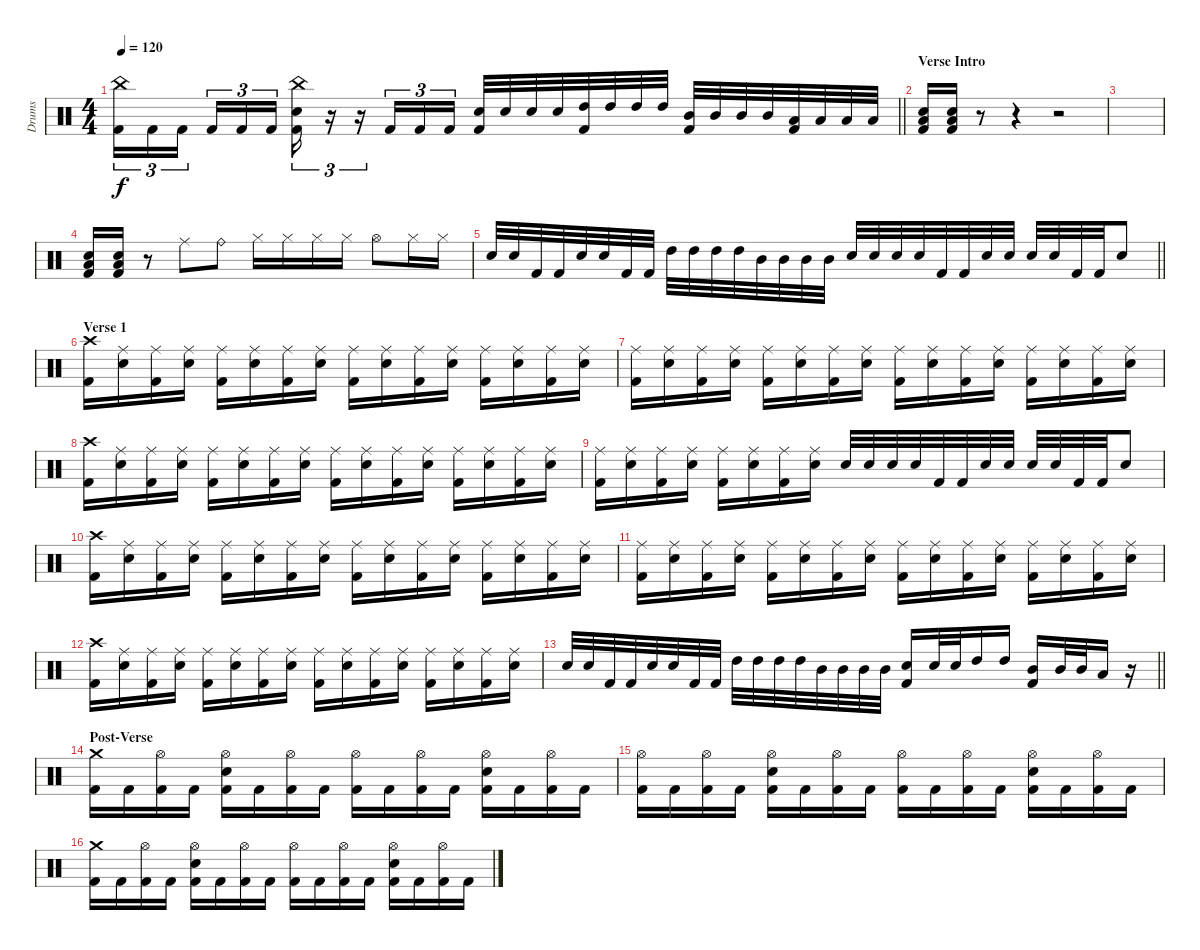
\track ("Drums" "Drums") {instrument percussion}
\staff {score}
\articulation defaults
\ts (4 4)
\tempo 120
\clef neutral
\barLineRight lightlight
\ks c
("China (hit)" "Kick (hit) 2").16{tu (3 2) dy f} "Kick (hit) 2".16{tu (3 2)} "Kick (hit) 2".16{tu (3 2) beam splitsecondary} "Kick (hit) 2".16{tu (3 2)} "Kick (hit) 2".16{tu (3 2)} "Kick (hit) 2".16{tu (3 2)} ("China (hit)" "Snare (hit) 2" "Kick (hit) 2").16{tu (3 2)} r.16{tu (3 2)} r.16{tu (3 2)} "Kick (hit) 2".16{tu (3 2)} "Kick (hit) 2".16{tu (3 2)} "Kick (hit) 2".16{tu (3 2)} ("Snare (hit) 2" "Kick (hit) 2").32 "Snare (hit) 2".32 "Snare (hit) 2".32 "Snare (hit) 2".32 ("High Tom (hit)" "Kick (hit) 2").32 "High Tom (hit)".32 "High Tom (hit)".32 "High Tom (hit)".32 ("Mid Tom (hit)" "Kick (hit) 2").32 "Mid Tom (hit)".32 "Mid Tom (hit)".32 "Mid Tom (hit)".32 ("Low Tom (hit)" "Kick (hit) 2").32 "Low Tom (hit)".32 "Low Tom (hit)".32 "Low Tom (hit)".32 |
\section ("" "Verse Intro")
("Low Tom (hit)" "Snare (hit) 2" "Kick (hit) 2").16 ("Low Tom (hit)" "Snare (hit) 2" "Kick (hit) 2").16 r.8 r.4 r.2 |
|
("Low Tom (hit)" "Snare (hit) 2" "Kick (hit) 2").16 ("Low Tom (hit)" "Snare (hit) 2" "Kick (hit) 2").16 r.8 "Ride (middle)".8 "Ride (bell)".8 "Hi-Hat (closed)".16 "Hi-Hat (closed)".16 "Hi-Hat (closed)".16 "Hi-Hat (closed)".16 "Hi-Hat (open)".8 "Hi-Hat (closed)".16 "Hi-Hat (closed)".16 |
\barLineRight lightlight "Snare (hit) 2".32 "Snare (hit) 2".32 "Kick (hit) 2".32 "Kick (hit) 2".32 "Snare (hit) 2".32 "Snare (hit) 2".32 "Kick (hit) 2".32 "Kick (hit) 2".32 "High Tom (hit)".32 "High Tom (hit)".32 "High Tom (hit)".32 "High Tom (hit)".32 "Mid Tom (hit)".32 "Mid Tom (hit)".32 "Mid Tom (hit)".32 "Mid Tom (hit)".32 "Snare (hit) 2".32 "Snare (hit) 2".32 "Snare (hit) 2".32 "Snare (hit) 2".32 "Kick (hit) 2".32 "Kick (hit) 2".32 "Snare (hit) 2".32 "Snare (hit) 2".32 "Snare (hit) 2".32 "Snare (hit) 2".32 "Kick (hit) 2".32 "Kick (hit) 2".32 "Snare (hit) 2".8
|
\section ("" "Verse 1")
("Crash high (hit)" "Kick (hit) 2").16 ("Ride (middle)" "Snare (hit) 2").16 ("Ride (middle)" "Kick (hit) 2").16 ("Ride (middle)" "Snare (hit) 2").16 ("Ride (middle)" "Kick (hit) 2").16 ("Ride (middle)" "Snare (hit) 2").16 ("Ride (middle)" "Kick (hit) 2").16 ("Ride (middle)" "Snare (hit) 2").16 ("Ride (middle)" "Kick (hit) 2").16 ("Ride (middle)" "Snare (hit) 2").16 ("Ride (middle)" "Kick (hit) 2").16 ("Ride (middle)" "Snare (hit) 2").16 ("Ride (middle)" "Kick (hit) 2").16 ("Ride (middle)" "Snare (hit) 2").16 ("Ride (middle)" "Kick (hit) 2").16 ("Ride (middle)" "Snare (hit) 2").16 |
("Ride (middle)" "Kick (hit) 2").16 ("Ride (middle)" "Snare (hit) 2").16 ("Ride (middle)" "Kick (hit) 2").16 ("Ride (middle)" "Snare (hit) 2").16 ("Ride (middle)" "Kick (hit) 2").16 ("Ride (middle)" "Snare (hit) 2").16 ("Ride (middle)" "Kick (hit) 2").16 ("Ride (middle)" "Snare (hit) 2").16 ("Ride (middle)" "Kick (hit) 2").16 ("Ride (middle)" "Snare (hit) 2").16 ("Ride (middle)" "Kick (hit) 2").16 ("Ride (middle)" "Snare (hit) 2").16 ("Ride (middle)" "Kick (hit) 2").16 ("Ride (middle)" "Snare (hit) 2").16 ("Ride (middle)" "Kick (hit) 2").16 ("Ride (middle)" "Snare (hit) 2").16 |
("Crash high (hit)" "Kick (hit) 2").16 ("Ride (middle)" "Snare (hit) 2").16 ("Ride (middle)" "Kick (hit) 2").16 ("Ride (middle)" "Snare (hit) 2").16 ("Ride (middle)" "Kick (hit) 2").16 ("Ride (middle)" "Snare (hit) 2").16 ("Ride (middle)" "Kick (hit) 2").16 ("Ride (middle)" "Snare (hit) 2").16 ("Ride (middle)" "Kick (hit) 2").16 ("Ride (middle)" "Snare (hit) 2").16 ("Ride (middle)" "Kick (hit) 2").16 ("Ride (middle)" "Snare (hit) 2").16 ("Ride (middle)" "Kick (hit) 2").16 ("Ride (middle)" "Snare (hit) 2").16 ("Ride (middle)" "Kick (hit) 2").16 ("Ride (middle)" "Snare (hit) 2").16 |
("Ride (middle)" "Kick (hit) 2").16 ("Ride (middle)" "Snare (hit) 2").16 ("Ride (middle)" "Kick (hit) 2").16 ("Ride (middle)" "Snare (hit) 2").16 ("Ride (middle)" "Kick (hit) 2").16 ("Ride (middle)" "Snare (hit) 2").16 ("Ride (middle)" "Kick (hit) 2").16 ("Ride (middle)" "Snare (hit) 2").16 "Snare (hit) 2".32 "Snare (hit) 2".32 "Snare (hit) 2".32 "Snare (hit) 2".32 "Kick (hit) 2".32 "Kick (hit) 2".32 "Snare (hit) 2".32 "Snare (hit) 2".32 "Snare (hit) 2".32 "Snare (hit) 2".32 "Kick (hit) 2".32 "Kick (hit) 2".32 "Snare (hit) 2".8 |
("Crash high (hit)" "Kick (hit) 2").16 ("Ride (middle)" "Snare (hit) 2").16 ("Ride (middle)" "Kick (hit) 2").16 ("Ride (middle)" "Snare (hit) 2").16 ("Ride (middle)" "Kick (hit) 2").16 ("Ride (middle)" "Snare (hit) 2").16 ("Ride (middle)" "Kick (hit) 2").16 ("Ride (middle)" "Snare (hit) 2").16 ("Ride (middle)" "Kick (hit) 2").16 ("Ride (middle)" "Snare (hit) 2").16 ("Ride (middle)" "Kick (hit) 2").16 ("Ride (middle)" "Snare (hit) 2").16 ("Ride (middle)" "Kick (hit) 2").16 ("Ride (middle)" "Snare (hit) 2").16 ("Ride (middle)" "Kick (hit) 2").16 ("Ride (middle)" "Snare (hit) 2").16 |
("Ride (middle)" "Kick (hit) 2").16 ("Ride (middle)" "Snare (hit) 2").16 ("Ride (middle)" "Kick (hit) 2").16 ("Ride (middle)" "Snare (hit) 2").16 ("Ride (middle)" "Kick (hit) 2").16 ("Ride (middle)" "Snare (hit) 2").16 ("Ride (middle)" "Kick (hit) 2").16 ("Ride (middle)" "Snare (hit) 2").16 ("Ride (middle)" "Kick (hit) 2").16 ("Ride (middle)" "Snare (hit) 2").16 ("Ride (middle)" "Kick (hit) 2").16 ("Ride (middle)" "Snare (hit) 2").16 ("Ride (middle)" "Kick (hit) 2").16 ("Ride (middle)" "Snare (hit) 2").16 ("Ride (middle)" "Kick (hit) 2").16 ("Ride (middle)" "Snare (hit) 2").16 |
("Crash high (hit)" "Kick (hit) 2").16 ("Ride (middle)" "Snare (hit) 2").16 ("Ride (middle)" "Kick (hit) 2").16 ("Ride (middle)" "Snare (hit) 2").16 ("Ride (middle)" "Kick (hit) 2").16 ("Ride (middle)" "Snare (hit) 2").16 ("Ride (middle)" "Kick (hit) 2").16 ("Ride (middle)" "Snare (hit) 2").16 ("Ride (middle)" "Kick (hit) 2").16 ("Ride (middle)" "Snare (hit) 2").16 ("Ride (middle)" "Kick (hit) 2").16 ("Ride (middle)" "Snare (hit) 2").16 ("Ride (middle)" "Kick (hit) 2").16 ("Ride (middle)" "Snare (hit) 2").16 ("Ride (middle)" "Kick (hit) 2").16 ("Ride (middle)" "Snare (hit) 2").16 |
\barLineRight lightlight "Snare (hit) 2".32 "Snare (hit) 2".32 "Kick (hit) 2".32 "Kick (hit) 2".32 "Snare (hit) 2".32 "Snare (hit) 2".32 "Kick (hit) 2".32 "Kick (hit) 2".32 "High Tom (hit)".32 "High Tom (hit)".32 "High Tom (hit)".32 "High Tom (hit)".32 "Mid Tom (hit)".32 "Mid Tom (hit)".32 "Mid Tom (hit)".32 "Mid Tom (hit)".32
("Snare (hit) 2" "Kick (hit) 2").16 "Snare (hit) 2".32 "Snare (hit) 2".32 "High Tom (hit)".16 "High Tom (hit)".16 ("Mid Tom (hit)" "Kick (hit) 2").16 "Mid Tom (hit)".32 "Mid Tom (hit)".32 "Low Tom (hit)".16 r.16 |
\section ("" "Post-Verse")
("Crash medium (hit)" "Kick (hit) 2").16 "Kick (hit) 2".16 ("Hi-Hat (open)" "Kick (hit) 2").16 "Kick (hit) 2".16 ("Hi-Hat (open)" "Snare (hit) 2" "Kick (hit) 2").16 "Kick (hit) 2".16 ("Hi-Hat (open)" "Kick (hit) 2").16 "Kick (hit) 2".16 ("Hi-Hat (open)" "Kick (hit) 2").16 "Kick (hit) 2".16 ("Hi-Hat (open)" "Kick (hit) 2").16 "Kick (hit) 2".16 ("Hi-Hat (open)" "Snare (hit) 2" "Kick (hit) 2").16 "Kick (hit) 2".16 ("Hi-Hat (open)" "Kick (hit) 2").16 "Kick (hit) 2".16 |
("Hi-Hat (open)" "Kick (hit) 2").16 "Kick (hit) 2".16 ("Hi-Hat (open)" "Kick (hit) 2").16 "Kick (hit) 2".16 ("Hi-Hat (open)" "Snare (hit) 2" "Kick (hit) 2").16 "Kick (hit) 2".16 ("Hi-Hat (open)" "Kick (hit) 2").16 "Kick (hit) 2".16 ("Hi-Hat (open)" "Kick (hit) 2").16 "Kick (hit) 2".16 ("Hi-Hat (open)" "Kick (hit) 2").16 "Kick (hit) 2".16 ("Hi-Hat (open)" "Snare (hit) 2" "Kick (hit) 2").16 "Kick (hit) 2".16 ("Hi-Hat (open)" "Kick (hit) 2").16 "Kick (hit) 2".16 |
("Crash medium (hit)" "Kick (hit) 2").16 "Kick (hit) 2".16 ("Hi-Hat (open)" "Kick (hit) 2").16 "Kick (hit) 2".16 ("Hi-Hat (open)" "Snare (hit) 2" "Kick (hit) 2").16 "Kick (hit) 2".16 ("Hi-Hat (open)" "Kick (hit) 2").16 "Kick (hit) 2".16 ("Hi-Hat (open)" "Kick (hit) 2").16 "Kick (hit) 2".16 ("Hi-Hat (open)" "Kick (hit) 2").16 "Kick (hit) 2".16 ("Hi-Hat (open)" "Snare (hit) 2" "Kick (hit) 2").16 "Kick (hit) 2".16 ("Hi-Hat (open)" "Kick (hit) 2").16 "Kick (hit) 2".16
